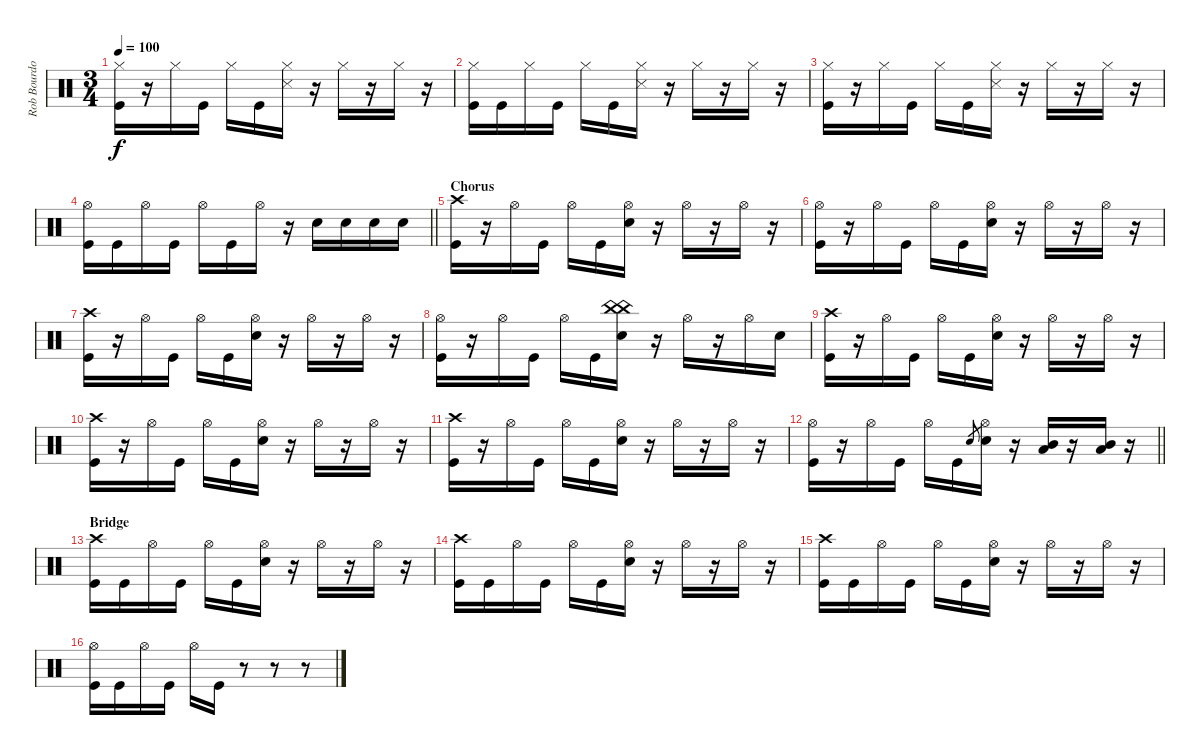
\track ("Rob Bourdon" "Rob Bourdo") {instrument percussion}
\staff {score}
\articulation defaults
\ts (3 4)
\tempo 100
\clef neutral
\ks c
("Hi-Hat (closed)" "Kick (hit)").16{dy f} r.16 "Hi-Hat (closed)".16 "Kick (hit)".16 "Hi-Hat (closed)".16 "Kick (hit)".16 ("Hi-Hat (closed)" "Snare (side stick) 3").16 r.16 "Hi-Hat (closed)".16 r.16 "Hi-Hat (closed)".16 r.16 |
("Hi-Hat (closed)" "Kick (hit)").16 "Kick (hit)".16 "Hi-Hat (closed)".16 "Kick (hit)".16 "Hi-Hat (closed)".16 "Kick (hit)".16 ("Hi-Hat (closed)" "Snare (side stick) 3").16 r.16 "Hi-Hat (closed)".16 r.16 "Hi-Hat (closed)".16 r.16 |
("Hi-Hat (closed)" "Kick (hit)").16 r.16 "Hi-Hat (closed)".16 "Kick (hit)".16 "Hi-Hat (closed)".16 "Kick (hit)".16 ("Hi-Hat (closed)" "Snare (side stick) 3").16 r.16 "Hi-Hat (closed)".16 r.16 "Hi-Hat (closed)".16 r.16 |
\barLineRight lightlight
("Hi-Hat (open)" "Kick (hit)").16 "Kick (hit)".16 "Hi-Hat (open)".16 "Kick (hit)".16 "Hi-Hat (open)".16 "Kick (hit)".16 "Hi-Hat (open)".16 r.16 "Snare (hit) 2".16 "Snare (hit) 2".16 "Snare (hit) 2".16 "Snare (hit) 2".16 |
\section ("" "Chorus")
("Crash high (hit)" "Kick (hit)").16 r.16 "Hi-Hat (open)".16 "Kick (hit)".16 "Hi-Hat (open)".16 "Kick (hit)".16 ("Hi-Hat (open)" "Snare (hit) 2").16 r.16 "Hi-Hat (open)".16 r.16 "Hi-Hat (open)".16 r.16 |
("Hi-Hat (open)" "Kick (hit)").16 r.16 "Hi-Hat (open)".16 "Kick (hit)".16 "Hi-Hat (open)".16 "Kick (hit)".16 ("Hi-Hat (open)" "Snare (hit) 2").16 r.16 "Hi-Hat (open)".16 r.16 "Hi-Hat (open)".16 r.16 |
("Crash high (hit)" "Kick (hit)").16 r.16 "Hi-Hat (open)".16 "Kick (hit)".16 "Hi-Hat (open)".16 "Kick (hit)".16 ("Hi-Hat (open)" "Snare (hit) 2").16 r.16 "Hi-Hat (open)".16 r.16 "Hi-Hat (open)".16 r.16 |
("Hi-Hat (open)" "Kick (hit)").16 r.16 "Hi-Hat (open)".16 "Kick (hit)".16 "Hi-Hat (open)".16 "Kick (hit)".16 ("China (hit)" "China (hit)" "Snare (hit) 2").16 r.16 "Hi-Hat (open)".16 r.16 "Hi-Hat (open)".16 "Snare (hit) 2".16 |
("Crash high (hit)" "Kick (hit)").16 r.16 "Hi-Hat (open)".16 "Kick (hit)".16 "Hi-Hat (open)".16 "Kick (hit)".16 ("Hi-Hat (open)" "Snare (hit) 2").16 r.16 "Hi-Hat (open)".16 r.16 "Hi-Hat (open)".16 r.16 |
("Crash high (hit)" "Kick (hit)").16 r.16 "Hi-Hat (open)".16 "Kick (hit)".16 "Hi-Hat (open)".16 "Kick (hit)".16 ("Hi-Hat (open)" "Snare (hit) 2").16 r.16 "Hi-Hat (open)".16 r.16 "Hi-Hat (open)".16 r.16 |
("Crash high (hit)" "Kick (hit)").16 r.16 "Hi-Hat (open)".16 "Kick (hit)".16 "Hi-Hat (open)".16 "Kick (hit)".16 ("Hi-Hat (open)" "Snare (hit) 2").16 r.16 "Hi-Hat (open)".16 r.16 "Hi-Hat (open)".16 r.16 |
\barLineRight lightlight
("Hi-Hat (open)" "Kick (hit)").16 r.16 "Hi-Hat (open)".16 "Kick (hit)".16 "Hi-Hat (open)".16 "Kick (hit)".16 "Snare (hit) 2".8{gr} ("Hi-Hat (open)" "Snare (hit) 2").16 r.16 ("Mid Tom (hit)" "Low Tom (hit)").16 r.16 ("Mid Tom (hit)" "Low Tom (hit)").16 r.16 |
\section ("" "Bridge")
("Crash high (hit)" "Kick (hit)").16 "Kick (hit)".16 "Hi-Hat (open)".16 "Kick (hit)".16 "Hi-Hat (open)".16 "Kick (hit)".16 ("Hi-Hat (open)" "Snare (hit) 2").16 r.16 "Hi-Hat (open)".16 r.16 "Hi-Hat (open)".16 r.16 |
("Crash high (hit)" "Kick (hit)").16 "Kick (hit)".16 "Hi-Hat (open)".16 "Kick (hit)".16 "Hi-Hat (open)".16 "Kick (hit)".16 ("Hi-Hat (open)" "Snare (hit) 2").16 r.16 "Hi-Hat (open)".16 r.16 "Hi-Hat (open)".16 r.16 |
("Crash high (hit)" "Kick (hit)").16 "Kick (hit)".16 "Hi-Hat (open)".16 "Kick (hit)".16 "Hi-Hat (open)".16 "Kick (hit)".16 ("Hi-Hat (open)" "Snare (hit) 2").16 r.16 "Hi-Hat (open)".16 r.16 "Hi-Hat (open)".16 r.16 |
("Hi-Hat (open)" "Kick (hit)").16 "Kick (hit)".16 "Hi-Hat (open)".16 "Kick (hit)".16 "Hi-Hat (open)".16 "Kick (hit)".16 r.8 r.8 r.8
